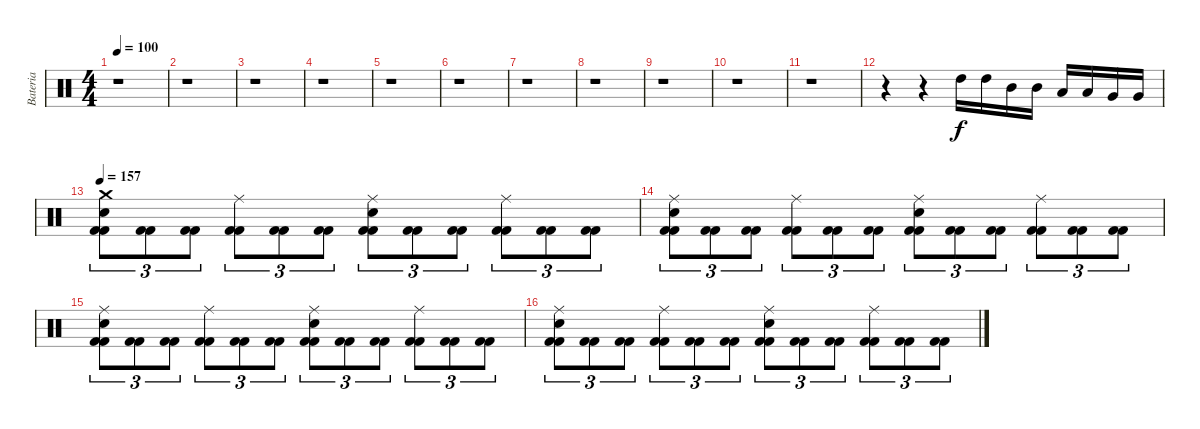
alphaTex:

\track ("Bateria" "Bateria") {instrument percussion}
\staff {score}
\articulation defaults
\ts (4 4)
\tempo 100
\clef neutral
\ks c
r.1{dy f} |
r.1 |
r.1 |
r.1 |
r.1 |
r.1 |
r.1 |
r.1 |
r.1 |
r.1 |
r.1 |
r.4 r.4 "High Tom (hit)".16 "High Tom (hit)".16 "Mid Tom (hit)".16 "Mid Tom (hit)".16 "Low Tom (hit)".16 "Low Tom (hit)".16 "Very Low Tom (hit)".16 "Very Low Tom (hit)".16 |
\tempo 157
("Kick (hit) 2" "Kick (hit) 2" "Snare (hit) 2" "Crash medium (hit)").8{tu (3 2)} ("Kick (hit) 2" "Kick (hit) 2").8{tu (3 2)} ("Kick (hit) 2" "Kick (hit) 2").8{tu (3 2)} ("Kick (hit) 2" "Kick (hit) 2" "Ride (middle)").8{tu (3 2)} ("Kick (hit) 2" "Kick (hit) 2").8{tu (3 2)} ("Kick (hit) 2" "Kick (hit) 2").8{tu (3 2)} ("Kick (hit) 2" "Kick (hit) 2" "Snare (hit) 2" "Ride (middle)").8{tu (3 2)} ("Kick (hit) 2" "Kick (hit) 2").8{tu (3 2)} ("Kick (hit) 2" "Kick (hit) 2").8{tu (3 2)} ("Kick (hit) 2" "Kick (hit) 2" "Ride (middle)").8{tu (3 2)} ("Kick (hit) 2" "Kick (hit) 2").8{tu (3 2)} ("Kick (hit) 2" "Kick (hit) 2").8{tu (3 2)} |
("Kick (hit) 2" "Kick (hit) 2" "Snare (hit) 2" "Ride (middle)").8{tu (3 2)} ("Kick (hit) 2" "Kick (hit) 2").8{tu (3 2)} ("Kick (hit) 2" "Kick (hit) 2").8{tu (3 2)} ("Kick (hit) 2" "Kick (hit) 2" "Ride (middle)").8{tu (3 2)} ("Kick (hit) 2" "Kick (hit) 2").8{tu (3 2)} ("Kick (hit) 2" "Kick (hit) 2").8{tu (3 2)} ("Kick (hit) 2" "Kick (hit) 2" "Snare (hit) 2" "Ride (middle)").8{tu (3 2)} ("Kick (hit) 2" "Kick (hit) 2").8{tu (3 2)} ("Kick (hit) 2" "Kick (hit) 2").8{tu (3 2)} ("Kick (hit) 2" "Kick (hit) 2" "Ride (middle)").8{tu (3 2)} ("Kick (hit) 2" "Kick (hit) 2").8{tu (3 2)} ("Kick (hit) 2" "Kick (hit) 2").8{tu (3 2)} |
("Kick (hit) 2" "Kick (hit) 2" "Snare (hit) 2" "Ride (middle)").8{tu (3 2)} ("Kick (hit) 2" "Kick (hit) 2").8{tu (3 2)} ("Kick (hit) 2" "Kick (hit) 2").8{tu (3 2)} ("Kick (hit) 2" "Kick (hit) 2" "Ride (middle)").8{tu (3 2)} ("Kick (hit) 2" "Kick (hit) 2").8{tu (3 2)} ("Kick (hit) 2" "Kick (hit) 2").8{tu (3 2)} ("Kick (hit) 2" "Kick (hit) 2" "Snare (hit) 2" "Ride (middle)").8{tu (3 2)} ("Kick (hit) 2" "Kick (hit) 2").8{tu (3 2)} ("Kick (hit) 2" "Kick (hit) 2").8{tu (3 2)} ("Kick (hit) 2" "Kick (hit) 2" "Ride (middle)").8{tu (3 2)} ("Kick (hit) 2" "Kick (hit) 2").8{tu (3 2)} ("Kick (hit) 2" "Kick (hit) 2").8{tu (3 2)} |
("Kick (hit) 2" "Kick (hit) 2" "Snare (hit) 2" "Ride (middle)").8{tu (3 2)} ("Kick (hit) 2" "Kick (hit) 2").8{tu (3 2)} ("Kick (hit) 2" "Kick (hit) 2").8{tu (3 2)} ("Kick (hit) 2" "Kick (hit) 2" "Ride (middle)").8{tu (3 2)} ("Kick (hit) 2" "Kick (hit) 2").8{tu (3 2)} ("Kick (hit) 2" "Kick (hit) 2").8{tu (3 2)} ("Kick (hit) 2" "Kick (hit) 2" "Snare (hit) 2" "Ride (middle)").8{tu (3 2)} ("Kick (hit) 2" "Kick (hit) 2").8{tu (3 2)} ("Kick (hit) 2" "Kick (hit) 2").8{tu (3 2)} ("Kick (hit) 2" "Kick (hit) 2" "Ride (middle)").8{tu (3 2)} ("Kick (hit) 2" "Kick (hit) 2").8{tu (3 2)} ("Kick (hit) 2" "Kick (hit) 2").8{tu (3 2)}
